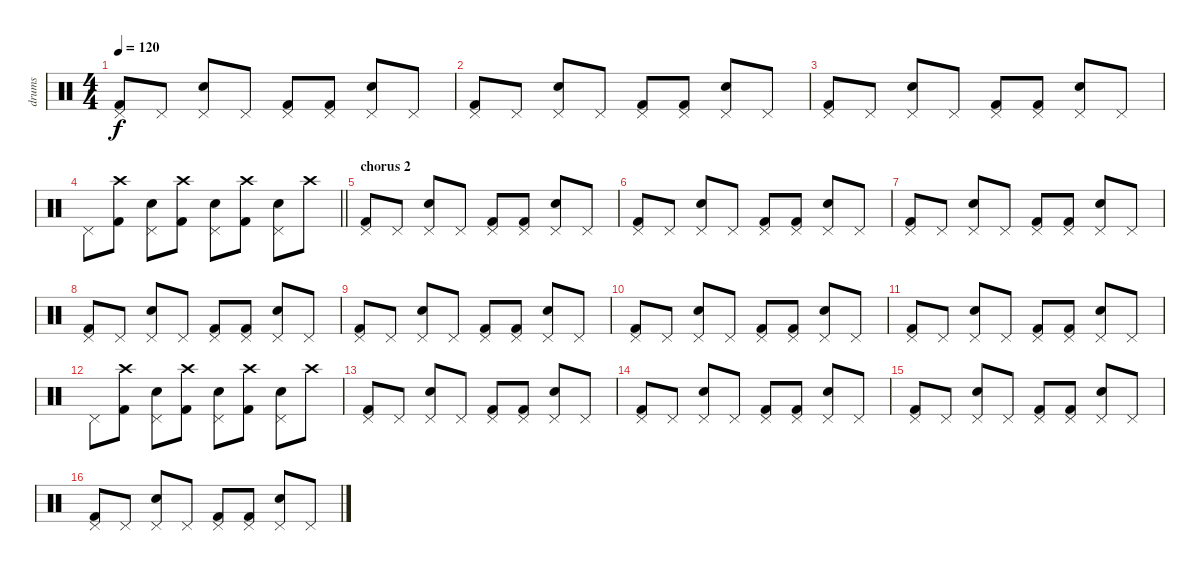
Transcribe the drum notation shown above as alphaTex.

\track ("drums" "drums") {instrument percussion}
\staff {score}
\articulation defaults
\ts (4 4)
\tempo 120
\clef neutral
\ks c
("Kick (hit) 2" "Pedal Hi-Hat (hit)").8{dy f} "Pedal Hi-Hat (hit)".8 ("Electric Snare (hit)" "Pedal Hi-Hat (hit)").8 "Pedal Hi-Hat (hit)".8 ("Kick (hit) 2" "Pedal Hi-Hat (hit)").8 ("Kick (hit) 2" "Pedal Hi-Hat (hit)").8 ("Electric Snare (hit)" "Pedal Hi-Hat (hit)").8 "Pedal Hi-Hat (hit)".8 |
("Kick (hit) 2" "Pedal Hi-Hat (hit)").8 "Pedal Hi-Hat (hit)".8 ("Electric Snare (hit)" "Pedal Hi-Hat (hit)").8 "Pedal Hi-Hat (hit)".8 ("Kick (hit) 2" "Pedal Hi-Hat (hit)").8 ("Kick (hit) 2" "Pedal Hi-Hat (hit)").8 ("Electric Snare (hit)" "Pedal Hi-Hat (hit)").8 "Pedal Hi-Hat (hit)".8 |
("Kick (hit) 2" "Pedal Hi-Hat (hit)").8 "Pedal Hi-Hat (hit)".8 ("Electric Snare (hit)" "Pedal Hi-Hat (hit)").8 "Pedal Hi-Hat (hit)".8 ("Kick (hit) 2" "Pedal Hi-Hat (hit)").8 ("Kick (hit) 2" "Pedal Hi-Hat (hit)").8 ("Electric Snare (hit)" "Pedal Hi-Hat (hit)").8 "Pedal Hi-Hat (hit)".8 |
\barLineRight lightlight "Pedal Hi-Hat (hit)".8
("Kick (hit) 2" "Crash high (hit)").8 ("Electric Snare (hit)" "Pedal Hi-Hat (hit)").8 ("Kick (hit) 2" "Crash high (hit)").8 ("Electric Snare (hit)" "Pedal Hi-Hat (hit)").8 ("Kick (hit) 2" "Crash high (hit)").8 ("Electric Snare (hit)" "Pedal Hi-Hat (hit)").8 "Crash high (hit)".8 |
\section ("" "chorus 2")
("Kick (hit) 2" "Pedal Hi-Hat (hit)").8 "Pedal Hi-Hat (hit)".8 ("Electric Snare (hit)" "Pedal Hi-Hat (hit)").8 "Pedal Hi-Hat (hit)".8 ("Kick (hit) 2" "Pedal Hi-Hat (hit)").8 ("Kick (hit) 2" "Pedal Hi-Hat (hit)").8 ("Electric Snare (hit)" "Pedal Hi-Hat (hit)").8 "Pedal Hi-Hat (hit)".8 |
("Kick (hit) 2" "Pedal Hi-Hat (hit)").8 "Pedal Hi-Hat (hit)".8 ("Electric Snare (hit)" "Pedal Hi-Hat (hit)").8 "Pedal Hi-Hat (hit)".8 ("Kick (hit) 2" "Pedal Hi-Hat (hit)").8 ("Kick (hit) 2" "Pedal Hi-Hat (hit)").8 ("Electric Snare (hit)" "Pedal Hi-Hat (hit)").8 "Pedal Hi-Hat (hit)".8 |
("Kick (hit) 2" "Pedal Hi-Hat (hit)").8 "Pedal Hi-Hat (hit)".8 ("Electric Snare (hit)" "Pedal Hi-Hat (hit)").8 "Pedal Hi-Hat (hit)".8 ("Kick (hit) 2" "Pedal Hi-Hat (hit)").8 ("Kick (hit) 2" "Pedal Hi-Hat (hit)").8 ("Electric Snare (hit)" "Pedal Hi-Hat (hit)").8 "Pedal Hi-Hat (hit)".8 |
("Kick (hit) 2" "Pedal Hi-Hat (hit)").8 "Pedal Hi-Hat (hit)".8 ("Electric Snare (hit)" "Pedal Hi-Hat (hit)").8 "Pedal Hi-Hat (hit)".8 ("Kick (hit) 2" "Pedal Hi-Hat (hit)").8 ("Kick (hit) 2" "Pedal Hi-Hat (hit)").8 ("Electric Snare (hit)" "Pedal Hi-Hat (hit)").8 "Pedal Hi-Hat (hit)".8 |
("Kick (hit) 2" "Pedal Hi-Hat (hit)").8 "Pedal Hi-Hat (hit)".8 ("Electric Snare (hit)" "Pedal Hi-Hat (hit)").8 "Pedal Hi-Hat (hit)".8 ("Kick (hit) 2" "Pedal Hi-Hat (hit)").8 ("Kick (hit) 2" "Pedal Hi-Hat (hit)").8 ("Electric Snare (hit)" "Pedal Hi-Hat (hit)").8 "Pedal Hi-Hat (hit)".8 |
("Kick (hit) 2" "Pedal Hi-Hat (hit)").8 "Pedal Hi-Hat (hit)".8 ("Electric Snare (hit)" "Pedal Hi-Hat (hit)").8 "Pedal Hi-Hat (hit)".8 ("Kick (hit) 2" "Pedal Hi-Hat (hit)").8 ("Kick (hit) 2" "Pedal Hi-Hat (hit)").8 ("Electric Snare (hit)" "Pedal Hi-Hat (hit)").8 "Pedal Hi-Hat (hit)".8 |
("Kick (hit) 2" "Pedal Hi-Hat (hit)").8 "Pedal Hi-Hat (hit)".8 ("Electric Snare (hit)" "Pedal Hi-Hat (hit)").8 "Pedal Hi-Hat (hit)".8 ("Kick (hit) 2" "Pedal Hi-Hat (hit)").8 ("Kick (hit) 2" "Pedal Hi-Hat (hit)").8 ("Electric Snare (hit)" "Pedal Hi-Hat (hit)").8 "Pedal Hi-Hat (hit)".8 |
"Pedal Hi-Hat (hit)".8 ("Kick (hit) 2" "Crash high (hit)").8 ("Electric Snare (hit)" "Pedal Hi-Hat (hit)").8 ("Kick (hit) 2" "Crash high (hit)").8 ("Electric Snare (hit)" "Pedal Hi-Hat (hit)").8 ("Kick (hit) 2" "Crash high (hit)").8 ("Electric Snare (hit)" "Pedal Hi-Hat (hit)").8 "Crash high (hit)".8 |
("Kick (hit) 2" "Pedal Hi-Hat (hit)").8 "Pedal Hi-Hat (hit)".8 ("Electric Snare (hit)" "Pedal Hi-Hat (hit)").8 "Pedal Hi-Hat (hit)".8 ("Kick (hit) 2" "Pedal Hi-Hat (hit)").8 ("Kick (hit) 2" "Pedal Hi-Hat (hit)").8 ("Electric Snare (hit)" "Pedal Hi-Hat (hit)").8 "Pedal Hi-Hat (hit)".8 |
("Kick (hit) 2" "Pedal Hi-Hat (hit)").8 "Pedal Hi-Hat (hit)".8 ("Electric Snare (hit)" "Pedal Hi-Hat (hit)").8 "Pedal Hi-Hat (hit)".8 ("Kick (hit) 2" "Pedal Hi-Hat (hit)").8 ("Kick (hit) 2" "Pedal Hi-Hat (hit)").8 ("Electric Snare (hit)" "Pedal Hi-Hat (hit)").8 "Pedal Hi-Hat (hit)".8 |
("Kick (hit) 2" "Pedal Hi-Hat (hit)").8 "Pedal Hi-Hat (hit)".8 ("Electric Snare (hit)" "Pedal Hi-Hat (hit)").8 "Pedal Hi-Hat (hit)".8 ("Kick (hit) 2" "Pedal Hi-Hat (hit)").8 ("Kick (hit) 2" "Pedal Hi-Hat (hit)").8 ("Electric Snare (hit)" "Pedal Hi-Hat (hit)").8 "Pedal Hi-Hat (hit)".8 |
("Kick (hit) 2" "Pedal Hi-Hat (hit)").8 "Pedal Hi-Hat (hit)".8 ("Electric Snare (hit)" "Pedal Hi-Hat (hit)").8 "Pedal Hi-Hat (hit)".8 ("Kick (hit) 2" "Pedal Hi-Hat (hit)").8 ("Kick (hit) 2" "Pedal Hi-Hat (hit)").8 ("Electric Snare (hit)" "Pedal Hi-Hat (hit)").8 "Pedal Hi-Hat (hit)".8
